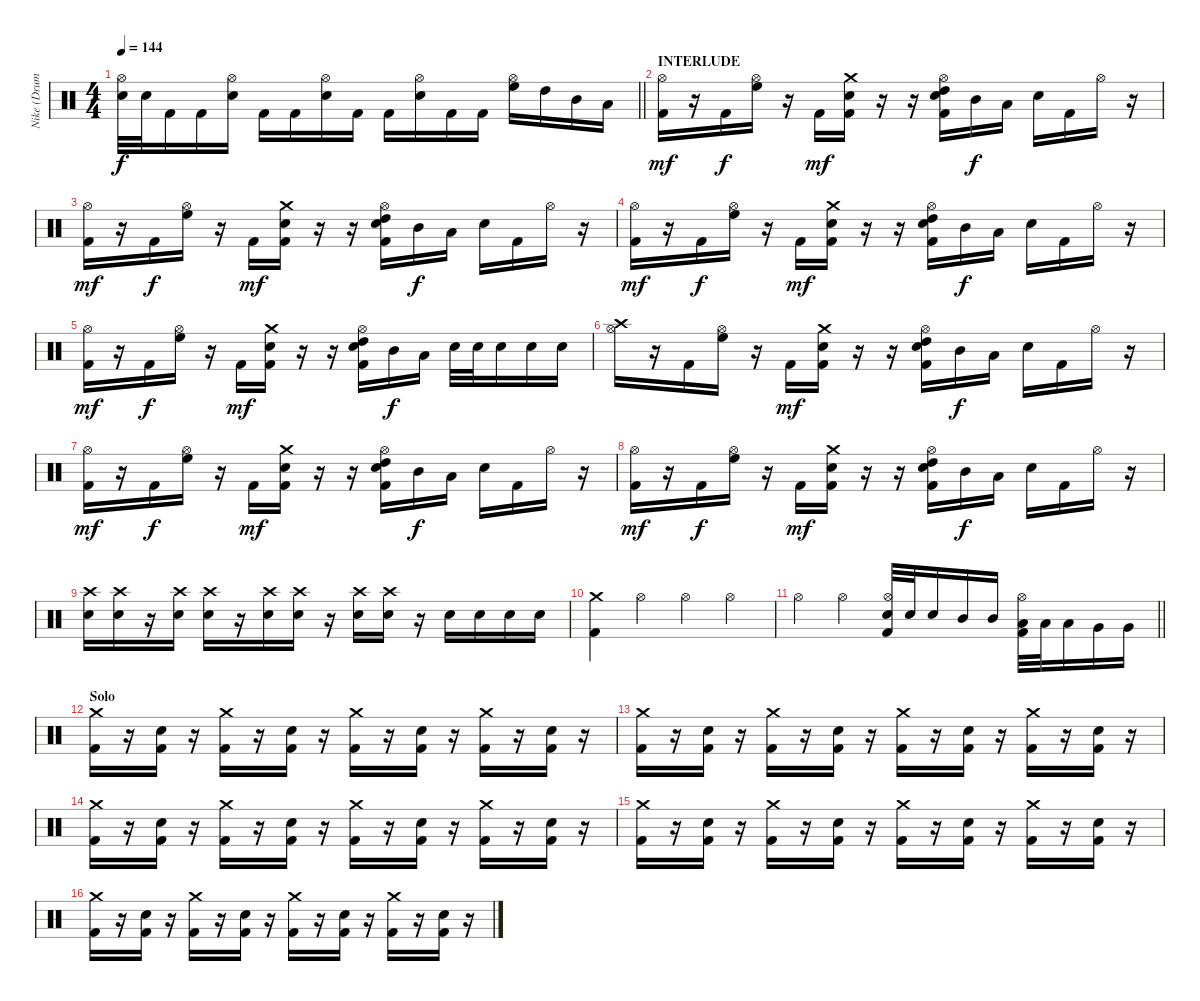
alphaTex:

\track ("Nike (Drums)" "Nike (Drum") {instrument percussion}
\staff {score}
\articulation defaults
\ts (4 4)
\tempo 144
\clef neutral
\barLineRight lightlight
\ks c
("Electric Snare (hit)" "Hi-Hat (open)").32{dy f} "Electric Snare (hit)".32 "Kick (hit) 2".16 "Kick (hit) 2".16 ("Electric Snare (hit)" "Hi-Hat (open)").16 "Kick (hit) 2".16 "Kick (hit) 2".16 ("Electric Snare (hit)" "Hi-Hat (open)").16 "Kick (hit) 2".16 "Kick (hit) 2".16 ("Electric Snare (hit)" "Hi-Hat (open)").16 "Kick (hit) 2".16 "Kick (hit) 2".16 ("High Floor Tom (hit)" "Hi-Hat (open)").16 "High Tom (hit)".16 "Mid Tom (hit)".16 "Low Tom (hit)".16 |
\section ("" "INTERLUDE")
("Hi-Hat (open)" "Kick (hit) 2").16{dy mf} r.16 "Kick (hit) 2".16{dy f} ("Hi-Hat (open)" "High Floor Tom (hit)").16 r.16 "Kick (hit) 2".16{dy mf} ("Crash medium (hit)" "Electric Snare (hit)" "Kick (hit) 2").16 r.16 r.16 ("Hi-Hat (open)" "High Tom (hit)" "Electric Snare (hit)" "Kick (hit) 2").16 "Mid Tom (hit)".16{dy f} "Low Tom (hit)".16 "Electric Snare (hit)".16 "Kick (hit) 2".16 "Hi-Hat (open)".16 r.16 |
("Hi-Hat (open)" "Kick (hit) 2").16{dy mf} r.16 "Kick (hit) 2".16{dy f} ("Hi-Hat (open)" "High Floor Tom (hit)").16 r.16 "Kick (hit) 2".16{dy mf} ("Crash medium (hit)" "Electric Snare (hit)" "Kick (hit) 2").16 r.16 r.16 ("Hi-Hat (open)" "High Tom (hit)" "Electric Snare (hit)" "Kick (hit) 2").16 "Mid Tom (hit)".16{dy f} "Low Tom (hit)".16 "Electric Snare (hit)".16 "Kick (hit) 2".16 "Hi-Hat (open)".16 r.16 |
("Hi-Hat (open)" "Kick (hit) 2").16{dy mf} r.16 "Kick (hit) 2".16{dy f} ("Hi-Hat (open)" "High Floor Tom (hit)").16 r.16 "Kick (hit) 2".16{dy mf} ("Crash medium (hit)" "Electric Snare (hit)" "Kick (hit) 2").16 r.16 r.16 ("Hi-Hat (open)" "High Tom (hit)" "Electric Snare (hit)" "Kick (hit) 2").16 "Mid Tom (hit)".16{dy f} "Low Tom (hit)".16 "Electric Snare (hit)".16 "Kick (hit) 2".16 "Hi-Hat (open)".16 r.16 |
("Hi-Hat (open)" "Kick (hit) 2").16{dy mf} r.16 "Kick (hit) 2".16{dy f} ("Hi-Hat (open)" "High Floor Tom (hit)").16 r.16 "Kick (hit) 2".16{dy mf} ("Crash medium (hit)" "Electric Snare (hit)" "Kick (hit) 2").16 r.16 r.16 ("Hi-Hat (open)" "High Tom (hit)" "Electric Snare (hit)" "Kick (hit) 2").16 "Mid Tom (hit)".16{dy f} "Low Tom (hit)".16 "Electric Snare (hit)".32 "Electric Snare (hit)".32 "Electric Snare (hit)".16 "Electric Snare (hit)".16 "Electric Snare (hit)".16 |
("Hi-Hat (open)" "Crash high (hit)").16 r.16 "Kick (hit) 2".16 ("Hi-Hat (open)" "High Floor Tom (hit)").16 r.16 "Kick (hit) 2".16{dy mf} ("Crash medium (hit)" "Electric Snare (hit)" "Kick (hit) 2").16 r.16 r.16 ("Hi-Hat (open)" "High Tom (hit)" "Electric Snare (hit)" "Kick (hit) 2").16 "Mid Tom (hit)".16{dy f} "Low Tom (hit)".16 "Electric Snare (hit)".16 "Kick (hit) 2".16 "Hi-Hat (open)".16 r.16 |
("Hi-Hat (open)" "Kick (hit) 2").16{dy mf} r.16 "Kick (hit) 2".16{dy f} ("Hi-Hat (open)" "High Floor Tom (hit)").16 r.16 "Kick (hit) 2".16{dy mf} ("Crash medium (hit)" "Electric Snare (hit)" "Kick (hit) 2").16 r.16 r.16 ("Hi-Hat (open)" "High Tom (hit)" "Electric Snare (hit)" "Kick (hit) 2").16 "Mid Tom (hit)".16{dy f} "Low Tom (hit)".16 "Electric Snare (hit)".16 "Kick (hit) 2".16 "Hi-Hat (open)".16 r.16 |
("Hi-Hat (open)" "Kick (hit) 2").16{dy mf} r.16 "Kick (hit) 2".16{dy f} ("Hi-Hat (open)" "High Floor Tom (hit)").16 r.16 "Kick (hit) 2".16{dy mf} ("Crash medium (hit)" "Electric Snare (hit)" "Kick (hit) 2").16 r.16 r.16 ("Hi-Hat (open)" "High Tom (hit)" "Electric Snare (hit)" "Kick (hit) 2").16 "Mid Tom (hit)".16{dy f} "Low Tom (hit)".16 "Electric Snare (hit)".16 "Kick (hit) 2".16 "Hi-Hat (open)".16 r.16 |
("Electric Snare (hit)" "Crash high (hit)").16 ("Electric Snare (hit)" "Crash high (hit)").16 r.16 ("Electric Snare (hit)" "Crash high (hit)").16 ("Electric Snare (hit)" "Crash high (hit)").16 r.16 ("Electric Snare (hit)" "Crash high (hit)").16 ("Electric Snare (hit)" "Crash high (hit)").16 r.16 ("Electric Snare (hit)" "Crash high (hit)").16 ("Electric Snare (hit)" "Crash high (hit)").16 r.16 "Electric Snare (hit)".16 "Electric Snare (hit)".16 "Electric Snare (hit)".16 "Electric Snare (hit)".16 |
("Kick (hit) 2" "Crash medium (hit)").4 "Hi-Hat (open)".4 "Hi-Hat (open)".4 "Hi-Hat (open)".4 |
\barLineRight lightlight "Hi-Hat (open)".4 "Hi-Hat (open)".4
("Hi-Hat (open)" "Electric Snare (hit)" "Kick (hit) 2").32 "Electric Snare (hit)".32 "Electric Snare (hit)".16 "Mid Tom (hit)".16 "Mid Tom (hit)".16 ("Hi-Hat (open)" "Low Tom (hit)" "Kick (hit) 2").32 "Low Tom (hit)".32 "Low Tom (hit)".16 "Very Low Tom (hit)".16 "Very Low Tom (hit)".16 |
\section ("" "Solo")
("Crash medium (hit)" "Kick (hit) 2").16 r.16 ("Electric Snare (hit)" "Kick (hit) 2").16 r.16 ("Crash medium (hit)" "Kick (hit) 2").16 r.16 ("Electric Snare (hit)" "Kick (hit) 2").16 r.16 ("Crash medium (hit)" "Kick (hit) 2").16 r.16 ("Electric Snare (hit)" "Kick (hit) 2").16 r.16 ("Crash medium (hit)" "Kick (hit) 2").16 r.16 ("Electric Snare (hit)" "Kick (hit) 2").16 r.16 |
("Crash medium (hit)" "Kick (hit) 2").16 r.16 ("Electric Snare (hit)" "Kick (hit) 2").16 r.16 ("Crash medium (hit)" "Kick (hit) 2").16 r.16 ("Electric Snare (hit)" "Kick (hit) 2").16 r.16 ("Crash medium (hit)" "Kick (hit) 2").16 r.16 ("Electric Snare (hit)" "Kick (hit) 2").16 r.16 ("Crash medium (hit)" "Kick (hit) 2").16 r.16 ("Electric Snare (hit)" "Kick (hit) 2").16 r.16 |
("Crash medium (hit)" "Kick (hit) 2").16 r.16 ("Electric Snare (hit)" "Kick (hit) 2").16 r.16 ("Crash medium (hit)" "Kick (hit) 2").16 r.16 ("Electric Snare (hit)" "Kick (hit) 2").16 r.16 ("Crash medium (hit)" "Kick (hit) 2").16 r.16 ("Electric Snare (hit)" "Kick (hit) 2").16 r.16 ("Crash medium (hit)" "Kick (hit) 2").16 r.16 ("Electric Snare (hit)" "Kick (hit) 2").16 r.16 |
("Crash medium (hit)" "Kick (hit) 2").16 r.16 ("Electric Snare (hit)" "Kick (hit) 2").16 r.16 ("Crash medium (hit)" "Kick (hit) 2").16 r.16 ("Electric Snare (hit)" "Kick (hit) 2").16 r.16 ("Crash medium (hit)" "Kick (hit) 2").16 r.16 ("Electric Snare (hit)" "Kick (hit) 2").16 r.16 ("Crash medium (hit)" "Kick (hit) 2").16 r.16 ("Electric Snare (hit)" "Kick (hit) 2").16 r.16 |
("Crash medium (hit)" "Kick (hit) 2").16 r.16 ("Electric Snare (hit)" "Kick (hit) 2").16 r.16 ("Crash medium (hit)" "Kick (hit) 2").16 r.16 ("Electric Snare (hit)" "Kick (hit) 2").16 r.16 ("Crash medium (hit)" "Kick (hit) 2").16 r.16 ("Electric Snare (hit)" "Kick (hit) 2").16 r.16 ("Crash medium (hit)" "Kick (hit) 2").16 r.16 ("Electric Snare (hit)" "Kick (hit) 2").16 r.16
